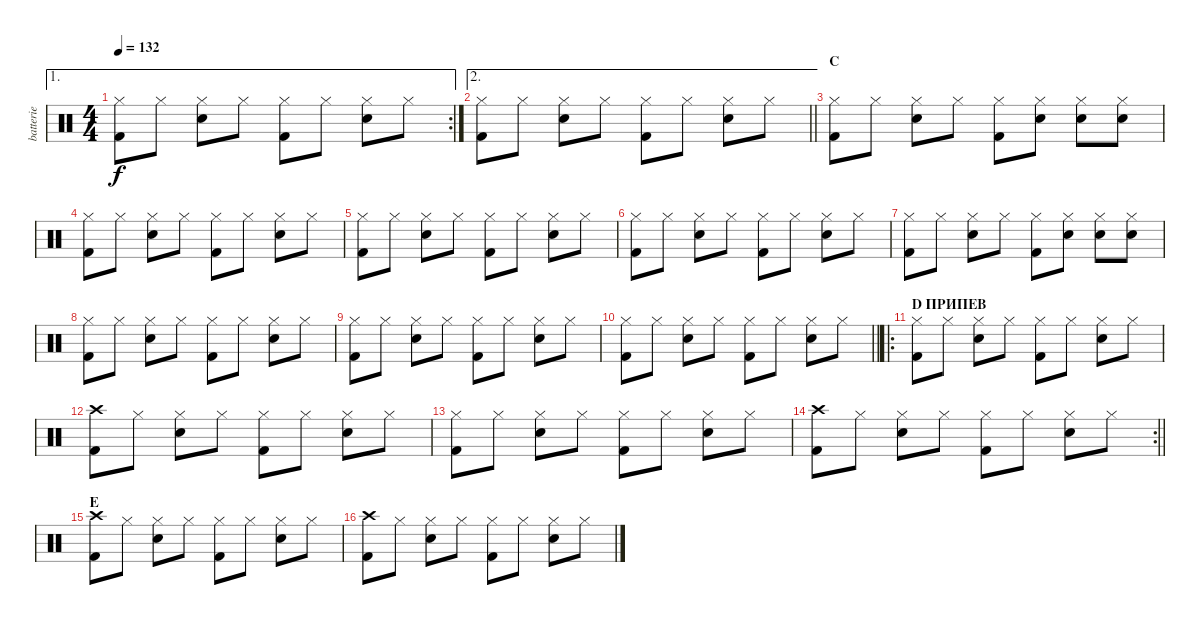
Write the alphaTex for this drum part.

\track ("batterie" "batterie") {instrument percussion}
\staff {score}
\articulation defaults
\ae 1
\rc 2
\ts (4 4)
\tempo 132
\clef neutral
\ks c
("Hi-Hat (closed)" "Kick (hit) 2").8{dy f} "Hi-Hat (closed)".8 ("Hi-Hat (closed)" "Electric Snare (hit)").8 "Hi-Hat (closed)".8 ("Hi-Hat (closed)" "Kick (hit) 2").8 "Hi-Hat (closed)".8 ("Hi-Hat (closed)" "Electric Snare (hit)").8 "Hi-Hat (closed)".8 |
\ae 2
\barLineRight lightlight
("Hi-Hat (closed)" "Kick (hit) 2").8 "Hi-Hat (closed)".8 ("Hi-Hat (closed)" "Electric Snare (hit)").8 "Hi-Hat (closed)".8 ("Hi-Hat (closed)" "Kick (hit) 2").8 "Hi-Hat (closed)".8 ("Hi-Hat (closed)" "Electric Snare (hit)").8 "Hi-Hat (closed)".8 |
\section ("" "С")
("Hi-Hat (closed)" "Kick (hit) 2").8 "Hi-Hat (closed)".8 ("Hi-Hat (closed)" "Electric Snare (hit)").8 "Hi-Hat (closed)".8 ("Hi-Hat (closed)" "Kick (hit) 2").8 ("Hi-Hat (closed)" "Electric Snare (hit)").8 ("Hi-Hat (closed)" "Electric Snare (hit)").8 ("Hi-Hat (closed)" "Electric Snare (hit)").8 |
("Hi-Hat (closed)" "Kick (hit) 2").8 "Hi-Hat (closed)".8 ("Hi-Hat (closed)" "Electric Snare (hit)").8 "Hi-Hat (closed)".8 ("Hi-Hat (closed)" "Kick (hit) 2").8 "Hi-Hat (closed)".8 ("Hi-Hat (closed)" "Electric Snare (hit)").8 "Hi-Hat (closed)".8 |
("Hi-Hat (closed)" "Kick (hit) 2").8 "Hi-Hat (closed)".8 ("Hi-Hat (closed)" "Electric Snare (hit)").8 "Hi-Hat (closed)".8 ("Hi-Hat (closed)" "Kick (hit) 2").8 "Hi-Hat (closed)".8 ("Hi-Hat (closed)" "Electric Snare (hit)").8 "Hi-Hat (closed)".8 |
("Hi-Hat (closed)" "Kick (hit) 2").8 "Hi-Hat (closed)".8 ("Hi-Hat (closed)" "Electric Snare (hit)").8 "Hi-Hat (closed)".8 ("Hi-Hat (closed)" "Kick (hit) 2").8 "Hi-Hat (closed)".8 ("Hi-Hat (closed)" "Electric Snare (hit)").8 "Hi-Hat (closed)".8 |
("Hi-Hat (closed)" "Kick (hit) 2").8 "Hi-Hat (closed)".8 ("Hi-Hat (closed)" "Electric Snare (hit)").8 "Hi-Hat (closed)".8 ("Hi-Hat (closed)" "Kick (hit) 2").8 ("Hi-Hat (closed)" "Electric Snare (hit)").8 ("Hi-Hat (closed)" "Electric Snare (hit)").8 ("Hi-Hat (closed)" "Electric Snare (hit)").8 |
("Hi-Hat (closed)" "Kick (hit) 2").8 "Hi-Hat (closed)".8 ("Hi-Hat (closed)" "Electric Snare (hit)").8 "Hi-Hat (closed)".8 ("Hi-Hat (closed)" "Kick (hit) 2").8 "Hi-Hat (closed)".8 ("Hi-Hat (closed)" "Electric Snare (hit)").8 "Hi-Hat (closed)".8 |
("Hi-Hat (closed)" "Kick (hit) 2").8 "Hi-Hat (closed)".8 ("Hi-Hat (closed)" "Electric Snare (hit)").8 "Hi-Hat (closed)".8 ("Hi-Hat (closed)" "Kick (hit) 2").8 "Hi-Hat (closed)".8 ("Hi-Hat (closed)" "Electric Snare (hit)").8 "Hi-Hat (closed)".8 |
\barLineRight lightlight
("Hi-Hat (closed)" "Kick (hit) 2").8 "Hi-Hat (closed)".8 ("Hi-Hat (closed)" "Electric Snare (hit)").8 "Hi-Hat (closed)".8 ("Hi-Hat (closed)" "Kick (hit) 2").8 "Hi-Hat (closed)".8 ("Hi-Hat (closed)" "Electric Snare (hit)").8 "Hi-Hat (closed)".8 |
\ro
\section ("" "D ПРИПЕВ")
("Hi-Hat (closed)" "Kick (hit) 2").8 "Hi-Hat (closed)".8 ("Hi-Hat (closed)" "Electric Snare (hit)").8 "Hi-Hat (closed)".8 ("Hi-Hat (closed)" "Kick (hit) 2").8 "Hi-Hat (closed)".8 ("Hi-Hat (closed)" "Electric Snare (hit)").8 "Hi-Hat (closed)".8 |
("Crash high (hit)" "Kick (hit) 2").8 "Hi-Hat (closed)".8 ("Hi-Hat (closed)" "Electric Snare (hit)").8 "Hi-Hat (closed)".8 ("Hi-Hat (closed)" "Kick (hit) 2").8 "Hi-Hat (closed)".8 ("Hi-Hat (closed)" "Electric Snare (hit)").8 "Hi-Hat (closed)".8 |
("Hi-Hat (closed)" "Kick (hit) 2").8 "Hi-Hat (closed)".8 ("Hi-Hat (closed)" "Electric Snare (hit)").8 "Hi-Hat (closed)".8 ("Hi-Hat (closed)" "Kick (hit) 2").8 "Hi-Hat (closed)".8 ("Hi-Hat (closed)" "Electric Snare (hit)").8 "Hi-Hat (closed)".8 |
\rc 2
\barLineRight lightlight
("Crash high (hit)" "Kick (hit) 2").8 "Hi-Hat (closed)".8 ("Hi-Hat (closed)" "Electric Snare (hit)").8 "Hi-Hat (closed)".8 ("Hi-Hat (closed)" "Kick (hit) 2").8 "Hi-Hat (closed)".8 ("Hi-Hat (closed)" "Electric Snare (hit)").8 "Hi-Hat (closed)".8 |
\section ("" "E")
("Crash high (hit)" "Kick (hit) 2").8 "Hi-Hat (closed)".8 ("Hi-Hat (closed)" "Electric Snare (hit)").8 "Hi-Hat (closed)".8 ("Hi-Hat (closed)" "Kick (hit) 2").8 "Hi-Hat (closed)".8 ("Hi-Hat (closed)" "Electric Snare (hit)").8 "Hi-Hat (closed)".8 |
("Crash high (hit)" "Kick (hit) 2").8 "Hi-Hat (closed)".8 ("Hi-Hat (closed)" "Electric Snare (hit)").8 "Hi-Hat (closed)".8 ("Hi-Hat (closed)" "Kick (hit) 2").8 "Hi-Hat (closed)".8 ("Hi-Hat (closed)" "Electric Snare (hit)").8 "Hi-Hat (closed)".8
